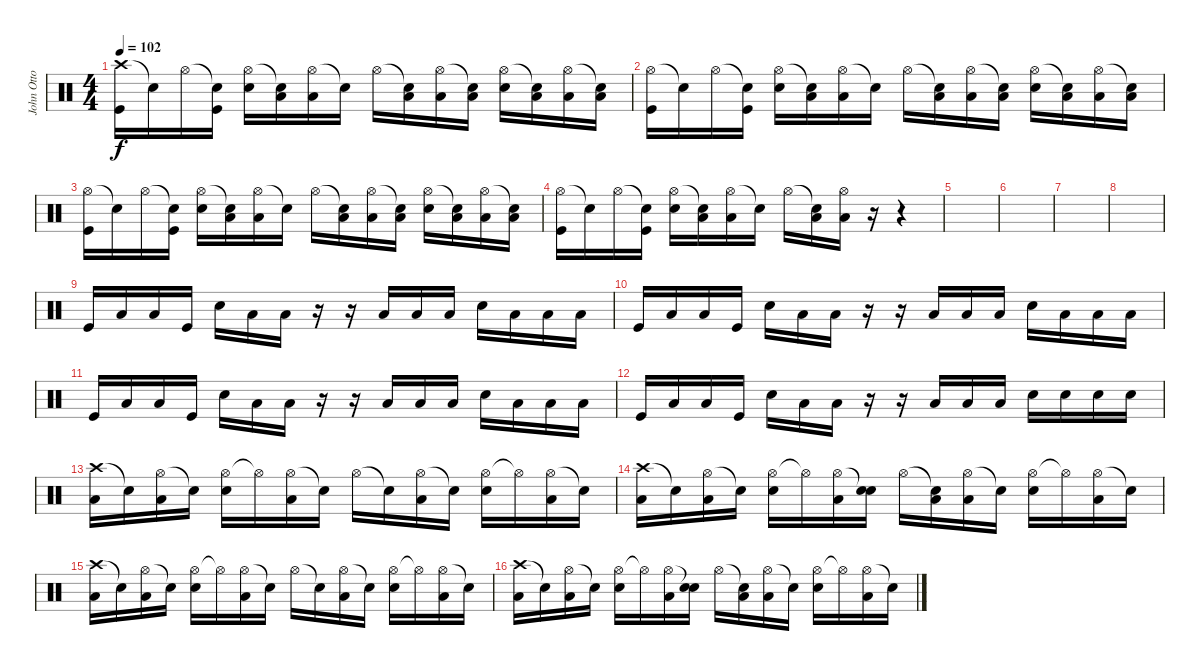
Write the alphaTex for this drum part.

\track ("John Otto (2nd Drums)" "John Otto ") {instrument percussion}
\staff {score}
\articulation defaults
\ts (4 4)
\tempo 102
\clef neutral
\ks c
("Crash high (hit)" "Kick (hit)").16{dy f} "Snare (hit)"{t}.16 "Hi-Hat (open)".16 ("Snare (hit)"{t} "Kick (hit)").16 ("Hi-Hat (open)" "Snare (hit) 2").16 ("Snare (hit)"{t} "Low Tom (hit)").16 ("Hi-Hat (open)" "Low Tom (hit)").16 "Snare (hit)"{t}.16 "Hi-Hat (open)".16 ("Snare (hit)"{t} "Low Tom (hit)").16 ("Hi-Hat (open)" "Low Tom (hit)").16 ("Snare (hit)"{t} "Low Tom (hit)").16 ("Hi-Hat (open)" "Snare (hit) 2").16 ("Snare (hit)"{t} "Low Tom (hit)").16 ("Hi-Hat (open)" "Low Tom (hit)").16 ("Snare (hit)"{t} "Low Tom (hit)").16 |
("Hi-Hat (open)" "Kick (hit)").16 "Snare (hit)"{t}.16 "Hi-Hat (open)".16 ("Snare (hit)"{t} "Kick (hit)").16 ("Hi-Hat (open)" "Snare (hit) 2").16 ("Snare (hit)"{t} "Low Tom (hit)").16 ("Hi-Hat (open)" "Low Tom (hit)").16 "Snare (hit)"{t}.16 "Hi-Hat (open)".16 ("Snare (hit)"{t} "Low Tom (hit)").16 ("Hi-Hat (open)" "Low Tom (hit)").16 ("Snare (hit)"{t} "Low Tom (hit)").16 ("Hi-Hat (open)" "Snare (hit) 2").16 ("Snare (hit)"{t} "Low Tom (hit)").16 ("Hi-Hat (open)" "Low Tom (hit)").16 ("Snare (hit)"{t} "Low Tom (hit)").16 |
("Hi-Hat (open)" "Kick (hit)").16 "Snare (hit)"{t}.16 "Hi-Hat (open)".16 ("Snare (hit)"{t} "Kick (hit)").16 ("Hi-Hat (open)" "Snare (hit) 2").16 ("Snare (hit)"{t} "Low Tom (hit)").16 ("Hi-Hat (open)" "Low Tom (hit)").16 "Snare (hit)"{t}.16 "Hi-Hat (open)".16 ("Snare (hit)"{t} "Low Tom (hit)").16 ("Hi-Hat (open)" "Low Tom (hit)").16 ("Snare (hit)"{t} "Low Tom (hit)").16 ("Hi-Hat (open)" "Snare (hit) 2").16 ("Snare (hit)"{t} "Low Tom (hit)").16 ("Hi-Hat (open)" "Low Tom (hit)").16 ("Snare (hit)"{t} "Low Tom (hit)").16 |
("Hi-Hat (open)" "Kick (hit)").16 "Snare (hit)"{t}.16 "Hi-Hat (open)".16 ("Snare (hit)"{t} "Kick (hit)").16 ("Hi-Hat (open)" "Snare (hit) 2").16 ("Snare (hit)"{t} "Low Tom (hit)").16 ("Hi-Hat (open)" "Low Tom (hit)").16 "Snare (hit)"{t}.16 "Hi-Hat (open)".16 ("Snare (hit)"{t} "Low Tom (hit)").16 ("Hi-Hat (open)" "Low Tom (hit)").16 r.16 r.4 |
|
|
|
|
"Kick (hit)".16 "Low Tom (hit)".16 "Low Tom (hit)".16 "Kick (hit)".16 "Snare (hit) 2".16 "Low Tom (hit)".16 "Low Tom (hit)".16 r.16 r.16 "Low Tom (hit)".16 "Low Tom (hit)".16 "Low Tom (hit)".16 "Snare (hit) 2".16 "Low Tom (hit)".16 "Low Tom (hit)".16 "Low Tom (hit)".16 |
"Kick (hit)".16 "Low Tom (hit)".16 "Low Tom (hit)".16 "Kick (hit)".16 "Snare (hit) 2".16 "Low Tom (hit)".16 "Low Tom (hit)".16 r.16 r.16 "Low Tom (hit)".16 "Low Tom (hit)".16 "Low Tom (hit)".16 "Snare (hit) 2".16 "Low Tom (hit)".16 "Low Tom (hit)".16 "Low Tom (hit)".16 |
"Kick (hit)".16 "Low Tom (hit)".16 "Low Tom (hit)".16 "Kick (hit)".16 "Snare (hit) 2".16 "Low Tom (hit)".16 "Low Tom (hit)".16 r.16 r.16 "Low Tom (hit)".16 "Low Tom (hit)".16 "Low Tom (hit)".16 "Snare (hit) 2".16 "Low Tom (hit)".16 "Low Tom (hit)".16 "Low Tom (hit)".16 |
"Kick (hit)".16 "Low Tom (hit)".16 "Low Tom (hit)".16 "Kick (hit)".16 "Snare (hit) 2".16 "Low Tom (hit)".16 "Low Tom (hit)".16 r.16 r.16 "Low Tom (hit)".16 "Low Tom (hit)".16 "Low Tom (hit)".16 "Snare (hit) 2".16 "Snare (hit) 2".16 "Snare (hit) 2".16 "Snare (hit) 2".16 |
("Crash high (hit)" "Low Tom (hit)").16 "Snare (hit)"{t}.16 ("Hi-Hat (open)" "Low Tom (hit)").16 "Snare (hit)"{t}.16 ("Hi-Hat (open)" "Snare (hit) 2").16 "Hi-Hat (open)"{t}.16 ("Hi-Hat (open)" "Low Tom (hit)").16 "Snare (hit)"{t}.16 "Hi-Hat (open)".16 "Snare (hit)"{t}.16 ("Hi-Hat (open)" "Low Tom (hit)").16 "Snare (hit)"{t}.16 ("Hi-Hat (open)" "Snare (hit) 2").16 "Hi-Hat (open)"{t}.16 ("Hi-Hat (open)" "Low Tom (hit)").16 "Snare (hit)"{t}.16 |
("Crash high (hit)" "Low Tom (hit)").16 "Snare (hit)"{t}.16 ("Hi-Hat (open)" "Low Tom (hit)").16 "Snare (hit)"{t}.16 ("Hi-Hat (open)" "Snare (hit) 2").16 "Hi-Hat (open)"{t}.16 ("Hi-Hat (open)" "Low Tom (hit)").16 ("Snare (hit)"{t} "Snare (hit) 2").16 "Hi-Hat (open)".16 ("Snare (hit)"{t} "Low Tom (hit)").16 ("Hi-Hat (open)" "Low Tom (hit)").16 "Snare (hit)"{t}.16 ("Hi-Hat (open)" "Snare (hit) 2").16 "Hi-Hat (open)"{t}.16 ("Hi-Hat (open)" "Low Tom (hit)").16 "Snare (hit)"{t}.16 |
("Crash high (hit)" "Low Tom (hit)").16 "Snare (hit)"{t}.16 ("Hi-Hat (open)" "Low Tom (hit)").16 "Snare (hit)"{t}.16 ("Hi-Hat (open)" "Snare (hit) 2").16 "Hi-Hat (open)"{t}.16 ("Hi-Hat (open)" "Low Tom (hit)").16 "Snare (hit)"{t}.16 "Hi-Hat (open)".16 "Snare (hit)"{t}.16 ("Hi-Hat (open)" "Low Tom (hit)").16 "Snare (hit)"{t}.16 ("Hi-Hat (open)" "Snare (hit) 2").16 "Hi-Hat (open)"{t}.16 ("Hi-Hat (open)" "Low Tom (hit)").16 "Snare (hit)"{t}.16 |
("Crash high (hit)" "Low Tom (hit)").16 "Snare (hit)"{t}.16 ("Hi-Hat (open)" "Low Tom (hit)").16 "Snare (hit)"{t}.16 ("Hi-Hat (open)" "Snare (hit) 2").16 "Hi-Hat (open)"{t}.16 ("Hi-Hat (open)" "Low Tom (hit)").16 ("Snare (hit)"{t} "Snare (hit) 2").16 "Hi-Hat (open)".16 ("Snare (hit)"{t} "Low Tom (hit)").16 ("Hi-Hat (open)" "Low Tom (hit)").16 "Snare (hit)"{t}.16 ("Hi-Hat (open)" "Snare (hit) 2").16 "Hi-Hat (open)"{t}.16 ("Hi-Hat (open)" "Low Tom (hit)").16 "Snare (hit)"{t}.16
